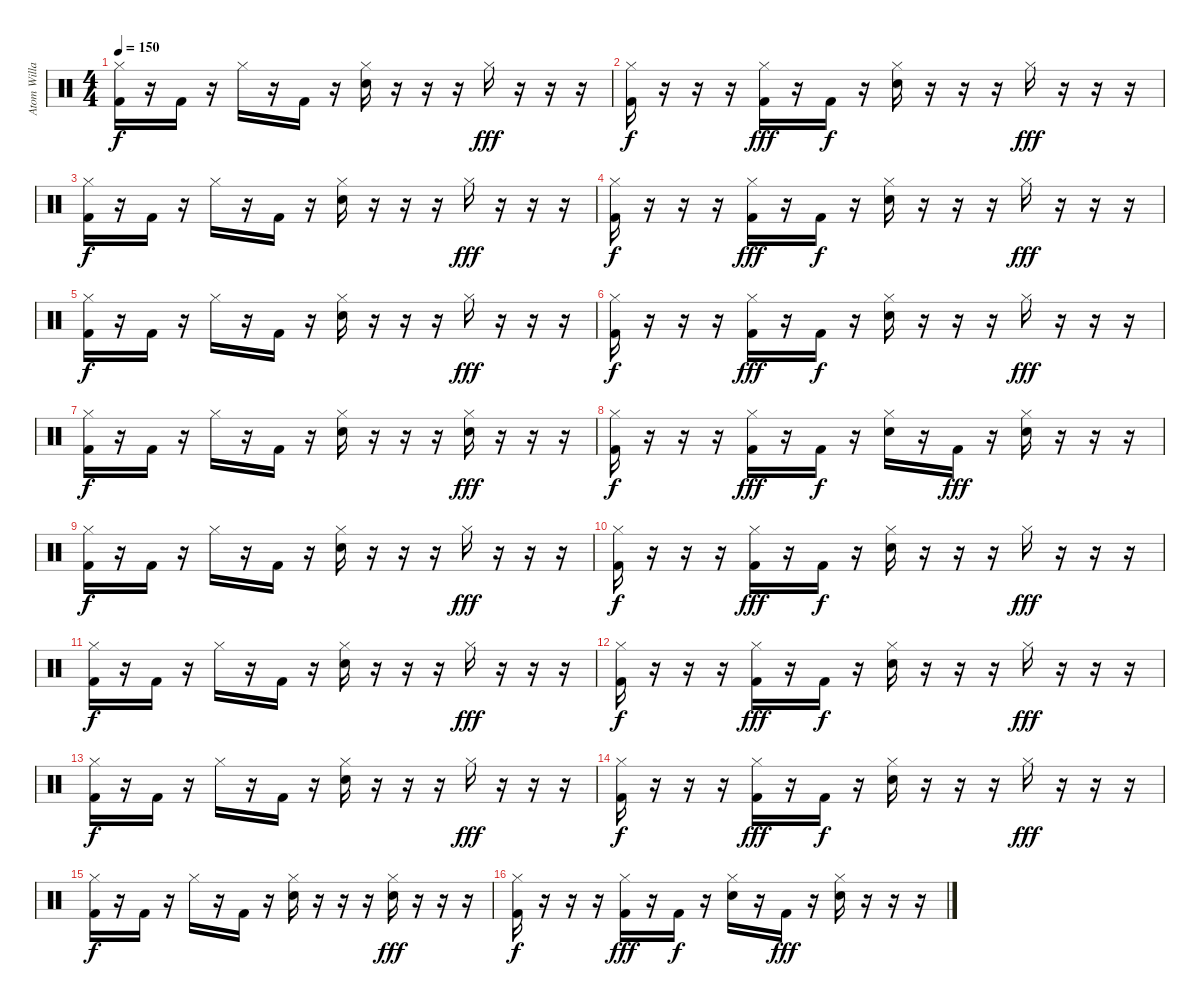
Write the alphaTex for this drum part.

\track ("Atom Willard, drums" "Atom Willa") {instrument percussion}
\staff {score}
\articulation defaults
\ts (4 4)
\tempo 150
\clef neutral
\ks c
("Hi-Hat (closed)" "Kick (hit) 2").16{dy f} r.16 "Kick (hit) 2".16 r.16 "Hi-Hat (closed)".16 r.16 "Kick (hit) 2".16 r.16 ("Hi-Hat (closed)" "Electric Snare (hit)").16 r.16 r.16 r.16 "Hi-Hat (closed)".16{dy fff} r.16 r.16 r.16 |
("Hi-Hat (closed)" "Kick (hit) 2").16{dy f} r.16 r.16 r.16 ("Hi-Hat (closed)" "Kick (hit) 2").16{dy fff} r.16 "Kick (hit) 2".16{dy f} r.16 ("Hi-Hat (closed)" "Electric Snare (hit)").16 r.16 r.16 r.16 "Hi-Hat (closed)".16{dy fff} r.16 r.16 r.16 |
("Hi-Hat (closed)" "Kick (hit) 2").16{dy f} r.16 "Kick (hit) 2".16 r.16 "Hi-Hat (closed)".16 r.16 "Kick (hit) 2".16 r.16 ("Hi-Hat (closed)" "Electric Snare (hit)").16 r.16 r.16 r.16 "Hi-Hat (closed)".16{dy fff} r.16 r.16 r.16 |
("Hi-Hat (closed)" "Kick (hit) 2").16{dy f} r.16 r.16 r.16 ("Hi-Hat (closed)" "Kick (hit) 2").16{dy fff} r.16 "Kick (hit) 2".16{dy f} r.16 ("Hi-Hat (closed)" "Electric Snare (hit)").16 r.16 r.16 r.16 "Hi-Hat (closed)".16{dy fff} r.16 r.16 r.16 |
("Hi-Hat (closed)" "Kick (hit) 2").16{dy f} r.16 "Kick (hit) 2".16 r.16 "Hi-Hat (closed)".16 r.16 "Kick (hit) 2".16 r.16 ("Hi-Hat (closed)" "Electric Snare (hit)").16 r.16 r.16 r.16 "Hi-Hat (closed)".16{dy fff} r.16 r.16 r.16 |
("Hi-Hat (closed)" "Kick (hit) 2").16{dy f} r.16 r.16 r.16 ("Hi-Hat (closed)" "Kick (hit) 2").16{dy fff} r.16 "Kick (hit) 2".16{dy f} r.16 ("Hi-Hat (closed)" "Electric Snare (hit)").16 r.16 r.16 r.16 "Hi-Hat (closed)".16{dy fff} r.16 r.16 r.16 |
("Hi-Hat (closed)" "Kick (hit) 2").16{dy f} r.16 "Kick (hit) 2".16 r.16 "Hi-Hat (closed)".16 r.16 "Kick (hit) 2".16 r.16 ("Hi-Hat (closed)" "Electric Snare (hit)").16 r.16 r.16 r.16 ("Hi-Hat (closed)" "Electric Snare (hit)").16{dy fff} r.16 r.16 r.16 |
("Hi-Hat (closed)" "Kick (hit) 2").16{dy f} r.16 r.16 r.16 ("Hi-Hat (closed)" "Kick (hit) 2").16{dy fff} r.16 "Kick (hit) 2".16{dy f} r.16 ("Hi-Hat (closed)" "Electric Snare (hit)").16 r.16 "Kick (hit) 2".16{dy fff} r.16 ("Hi-Hat (closed)" "Electric Snare (hit)").16 r.16 r.16 r.16 |
("Hi-Hat (closed)" "Kick (hit) 2").16{dy f} r.16 "Kick (hit) 2".16 r.16 "Hi-Hat (closed)".16 r.16 "Kick (hit) 2".16 r.16 ("Hi-Hat (closed)" "Electric Snare (hit)").16 r.16 r.16 r.16 "Hi-Hat (closed)".16{dy fff} r.16 r.16 r.16 |
("Hi-Hat (closed)" "Kick (hit) 2").16{dy f} r.16 r.16 r.16 ("Hi-Hat (closed)" "Kick (hit) 2").16{dy fff} r.16 "Kick (hit) 2".16{dy f} r.16 ("Hi-Hat (closed)" "Electric Snare (hit)").16 r.16 r.16 r.16 "Hi-Hat (closed)".16{dy fff} r.16 r.16 r.16 |
("Hi-Hat (closed)" "Kick (hit) 2").16{dy f} r.16 "Kick (hit) 2".16 r.16 "Hi-Hat (closed)".16 r.16 "Kick (hit) 2".16 r.16 ("Hi-Hat (closed)" "Electric Snare (hit)").16 r.16 r.16 r.16 "Hi-Hat (closed)".16{dy fff} r.16 r.16 r.16 |
("Hi-Hat (closed)" "Kick (hit) 2").16{dy f} r.16 r.16 r.16 ("Hi-Hat (closed)" "Kick (hit) 2").16{dy fff} r.16 "Kick (hit) 2".16{dy f} r.16 ("Hi-Hat (closed)" "Electric Snare (hit)").16 r.16 r.16 r.16 "Hi-Hat (closed)".16{dy fff} r.16 r.16 r.16 |
("Hi-Hat (closed)" "Kick (hit) 2").16{dy f} r.16 "Kick (hit) 2".16 r.16 "Hi-Hat (closed)".16 r.16 "Kick (hit) 2".16 r.16 ("Hi-Hat (closed)" "Electric Snare (hit)").16 r.16 r.16 r.16 "Hi-Hat (closed)".16{dy fff} r.16 r.16 r.16 |
("Hi-Hat (closed)" "Kick (hit) 2").16{dy f} r.16 r.16 r.16 ("Hi-Hat (closed)" "Kick (hit) 2").16{dy fff} r.16 "Kick (hit) 2".16{dy f} r.16 ("Hi-Hat (closed)" "Electric Snare (hit)").16 r.16 r.16 r.16 "Hi-Hat (closed)".16{dy fff} r.16 r.16 r.16 |
("Hi-Hat (closed)" "Kick (hit) 2").16{dy f} r.16 "Kick (hit) 2".16 r.16 "Hi-Hat (closed)".16 r.16 "Kick (hit) 2".16 r.16 ("Hi-Hat (closed)" "Electric Snare (hit)").16 r.16 r.16 r.16 ("Hi-Hat (closed)" "Electric Snare (hit)").16{dy fff} r.16 r.16 r.16 |
("Hi-Hat (closed)" "Kick (hit) 2").16{dy f} r.16 r.16 r.16 ("Hi-Hat (closed)" "Kick (hit) 2").16{dy fff} r.16 "Kick (hit) 2".16{dy f} r.16 ("Hi-Hat (closed)" "Electric Snare (hit)").16 r.16 "Kick (hit) 2".16{dy fff} r.16 ("Hi-Hat (closed)" "Electric Snare (hit)").16 r.16 r.16 r.16
